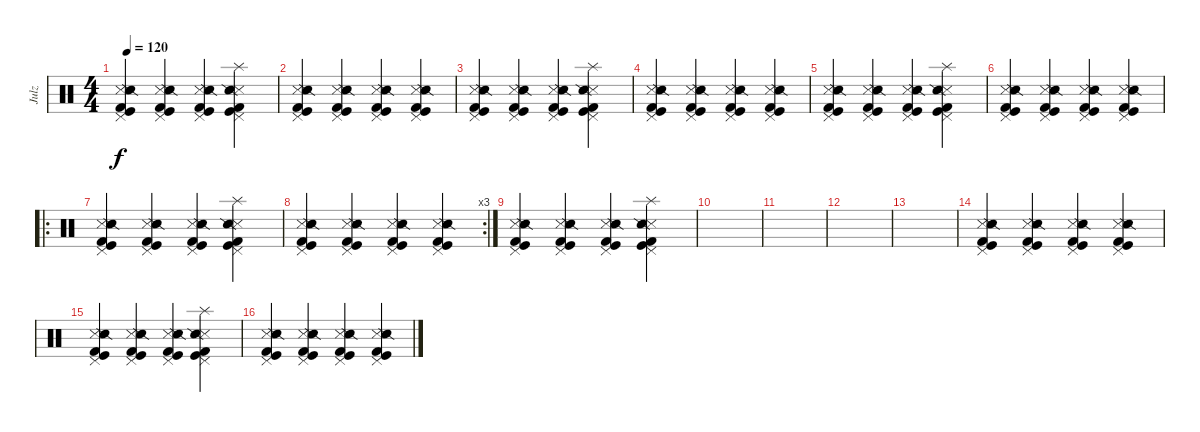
\track ("Julz" "Julz") {instrument percussion}
\staff {score}
\articulation defaults
\ts (4 4)
\tempo 120
\clef neutral
\ks c
("Metronome (hit)" "Snare (side stick) 2" "Pedal Hi-Hat (hit)" "Kick (hit)" "Kick (hit) 2").4{dy f} ("Metronome (hit)" "Snare (side stick) 2" "Pedal Hi-Hat (hit)" "Kick (hit)" "Kick (hit) 2").4 ("Metronome (hit)" "Snare (side stick) 2" "Pedal Hi-Hat (hit)" "Kick (hit)" "Kick (hit) 2").4 ("Splash (hit)" "Metronome (hit)" "Snare (side stick) 2" "Pedal Hi-Hat (hit)" "Kick (hit)" "Kick (hit) 2").4 |
("Metronome (hit)" "Snare (side stick) 2" "Pedal Hi-Hat (hit)" "Kick (hit)" "Kick (hit) 2").4 ("Metronome (hit)" "Snare (side stick) 2" "Pedal Hi-Hat (hit)" "Kick (hit)" "Kick (hit) 2").4 ("Metronome (hit)" "Snare (side stick) 2" "Pedal Hi-Hat (hit)" "Kick (hit)" "Kick (hit) 2").4 ("Metronome (hit)" "Snare (side stick) 2" "Pedal Hi-Hat (hit)" "Kick (hit)" "Kick (hit) 2").4 |
("Metronome (hit)" "Snare (side stick) 2" "Pedal Hi-Hat (hit)" "Kick (hit)" "Kick (hit) 2").4 ("Metronome (hit)" "Snare (side stick) 2" "Pedal Hi-Hat (hit)" "Kick (hit)" "Kick (hit) 2").4 ("Metronome (hit)" "Snare (side stick) 2" "Pedal Hi-Hat (hit)" "Kick (hit)" "Kick (hit) 2").4 ("Splash (hit)" "Metronome (hit)" "Snare (side stick) 2" "Pedal Hi-Hat (hit)" "Kick (hit)" "Kick (hit) 2").4 |
("Metronome (hit)" "Snare (side stick) 2" "Pedal Hi-Hat (hit)" "Kick (hit)" "Kick (hit) 2").4 ("Metronome (hit)" "Snare (side stick) 2" "Pedal Hi-Hat (hit)" "Kick (hit)" "Kick (hit) 2").4 ("Metronome (hit)" "Snare (side stick) 2" "Pedal Hi-Hat (hit)" "Kick (hit)" "Kick (hit) 2").4 ("Metronome (hit)" "Snare (side stick) 2" "Pedal Hi-Hat (hit)" "Kick (hit)" "Kick (hit) 2").4 |
("Metronome (hit)" "Snare (side stick) 2" "Pedal Hi-Hat (hit)" "Kick (hit)" "Kick (hit) 2").4 ("Metronome (hit)" "Snare (side stick) 2" "Pedal Hi-Hat (hit)" "Kick (hit)" "Kick (hit) 2").4 ("Metronome (hit)" "Snare (side stick) 2" "Pedal Hi-Hat (hit)" "Kick (hit)" "Kick (hit) 2").4 ("Splash (hit)" "Metronome (hit)" "Snare (side stick) 2" "Pedal Hi-Hat (hit)" "Kick (hit)" "Kick (hit) 2").4 |
("Metronome (hit)" "Snare (side stick) 2" "Pedal Hi-Hat (hit)" "Kick (hit)" "Kick (hit) 2").4 ("Metronome (hit)" "Snare (side stick) 2" "Pedal Hi-Hat (hit)" "Kick (hit)" "Kick (hit) 2").4 ("Metronome (hit)" "Snare (side stick) 2" "Pedal Hi-Hat (hit)" "Kick (hit)" "Kick (hit) 2").4 ("Metronome (hit)" "Snare (side stick) 2" "Pedal Hi-Hat (hit)" "Kick (hit)" "Kick (hit) 2").4 |
\ro
("Metronome (hit)" "Snare (side stick) 2" "Pedal Hi-Hat (hit)" "Kick (hit)" "Kick (hit) 2").4 ("Metronome (hit)" "Snare (side stick) 2" "Pedal Hi-Hat (hit)" "Kick (hit)" "Kick (hit) 2").4 ("Metronome (hit)" "Snare (side stick) 2" "Pedal Hi-Hat (hit)" "Kick (hit)" "Kick (hit) 2").4 ("Splash (hit)" "Metronome (hit)" "Snare (side stick) 2" "Pedal Hi-Hat (hit)" "Kick (hit)" "Kick (hit) 2").4 |
\rc 3
("Metronome (hit)" "Snare (side stick) 2" "Pedal Hi-Hat (hit)" "Kick (hit)" "Kick (hit) 2").4 ("Metronome (hit)" "Snare (side stick) 2" "Pedal Hi-Hat (hit)" "Kick (hit)" "Kick (hit) 2").4 ("Metronome (hit)" "Snare (side stick) 2" "Pedal Hi-Hat (hit)" "Kick (hit)" "Kick (hit) 2").4 ("Metronome (hit)" "Snare (side stick) 2" "Pedal Hi-Hat (hit)" "Kick (hit)" "Kick (hit) 2").4 |
("Metronome (hit)" "Snare (side stick) 2" "Pedal Hi-Hat (hit)" "Kick (hit)" "Kick (hit) 2").4 ("Metronome (hit)" "Snare (side stick) 2" "Pedal Hi-Hat (hit)" "Kick (hit)" "Kick (hit) 2").4 ("Metronome (hit)" "Snare (side stick) 2" "Pedal Hi-Hat (hit)" "Kick (hit)" "Kick (hit) 2").4 ("Splash (hit)" "Metronome (hit)" "Snare (side stick) 2" "Pedal Hi-Hat (hit)" "Kick (hit)" "Kick (hit) 2").4 |
|
|
|
|
("Metronome (hit)" "Snare (side stick) 2" "Pedal Hi-Hat (hit)" "Kick (hit)" "Kick (hit) 2").4 ("Metronome (hit)" "Snare (side stick) 2" "Pedal Hi-Hat (hit)" "Kick (hit)" "Kick (hit) 2").4 ("Metronome (hit)" "Snare (side stick) 2" "Pedal Hi-Hat (hit)" "Kick (hit)" "Kick (hit) 2").4 ("Metronome (hit)" "Snare (side stick) 2" "Pedal Hi-Hat (hit)" "Kick (hit)" "Kick (hit) 2").4 |
("Metronome (hit)" "Snare (side stick) 2" "Pedal Hi-Hat (hit)" "Kick (hit)" "Kick (hit) 2").4 ("Metronome (hit)" "Snare (side stick) 2" "Pedal Hi-Hat (hit)" "Kick (hit)" "Kick (hit) 2").4 ("Metronome (hit)" "Snare (side stick) 2" "Pedal Hi-Hat (hit)" "Kick (hit)" "Kick (hit) 2").4 ("Splash (hit)" "Metronome (hit)" "Snare (side stick) 2" "Pedal Hi-Hat (hit)" "Kick (hit)" "Kick (hit) 2").4 |
("Metronome (hit)" "Snare (side stick) 2" "Pedal Hi-Hat (hit)" "Kick (hit)" "Kick (hit) 2").4 ("Metronome (hit)" "Snare (side stick) 2" "Pedal Hi-Hat (hit)" "Kick (hit)" "Kick (hit) 2").4 ("Metronome (hit)" "Snare (side stick) 2" "Pedal Hi-Hat (hit)" "Kick (hit)" "Kick (hit) 2").4 ("Metronome (hit)" "Snare (side stick) 2" "Pedal Hi-Hat (hit)" "Kick (hit)" "Kick (hit) 2").4
